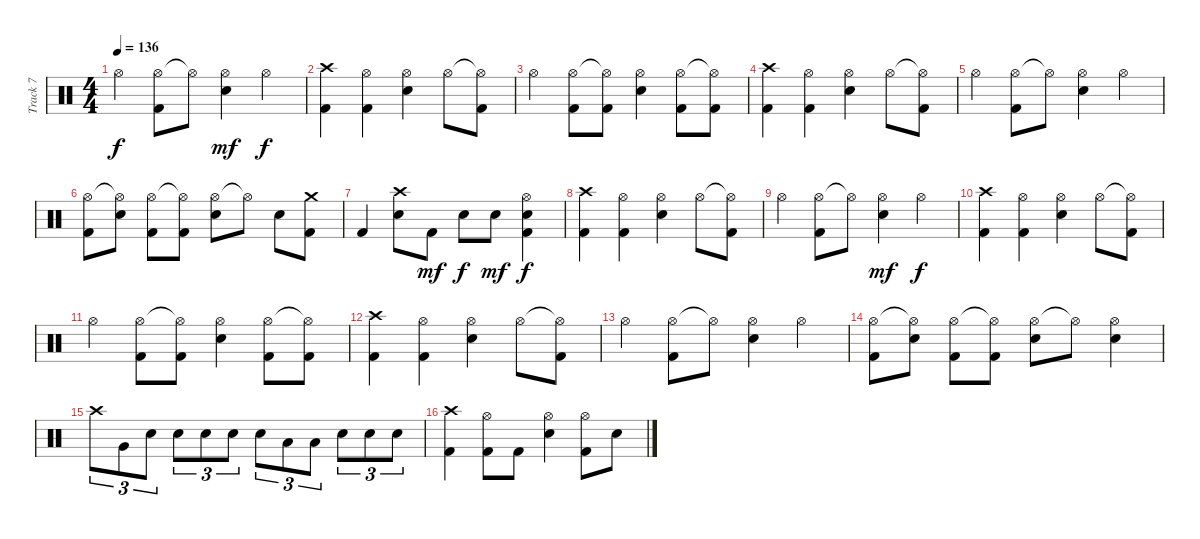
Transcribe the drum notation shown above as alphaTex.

\track ("Track 7" "Track 7") {instrument percussion}
\staff {score}
\articulation defaults
\ts (4 4)
\tempo 136
\clef neutral
\ks c "Hi-Hat (open)".4{dy f}
("Hi-Hat (open)" "Kick (hit) 2").8 "Hi-Hat (open)"{t}.8 ("Hi-Hat (open)" "Electric Snare (hit)").4{dy mf} "Hi-Hat (open)".4{dy f} |
("Crash high (hit)" "Kick (hit) 2").4 ("Hi-Hat (open)" "Kick (hit) 2").4 ("Hi-Hat (open)" "Electric Snare (hit)").4 "Hi-Hat (open)".8 ("Hi-Hat (open)"{t} "Kick (hit) 2").8 |
"Hi-Hat (open)".4 ("Hi-Hat (open)" "Kick (hit) 2").8 ("Hi-Hat (open)"{t} "Kick (hit) 2").8 ("Hi-Hat (open)" "Electric Snare (hit)").4 ("Hi-Hat (open)" "Kick (hit) 2").8 ("Hi-Hat (open)"{t} "Kick (hit) 2").8 |
("Crash high (hit)" "Kick (hit) 2").4 ("Hi-Hat (open)" "Kick (hit) 2").4 ("Hi-Hat (open)" "Electric Snare (hit)").4 "Hi-Hat (open)".8 ("Hi-Hat (open)"{t} "Kick (hit) 2").8 |
"Hi-Hat (open)".4 ("Hi-Hat (open)" "Kick (hit) 2").8 "Hi-Hat (open)"{t}.8 ("Hi-Hat (open)" "Electric Snare (hit)").4 "Hi-Hat (open)".4 |
("Hi-Hat (open)" "Kick (hit) 2").8 ("Hi-Hat (open)"{t} "Electric Snare (hit)").8 ("Hi-Hat (open)" "Kick (hit) 2").8 ("Hi-Hat (open)"{t} "Kick (hit) 2").8 ("Hi-Hat (open)" "Electric Snare (hit)").8 "Hi-Hat (open)"{t}.8 "Electric Snare (hit)".8 ("Crash medium (hit)" "Kick (hit) 2").8 |
"Kick (hit) 2".4 ("Crash high (hit)" "Electric Snare (hit)").8 "Kick (hit) 2".8{dy mf} "Electric Snare (hit)".8{dy f} "Electric Snare (hit)".8{dy mf} ("Hi-Hat (open)" "Electric Snare (hit)" "Kick (hit) 2").4{dy f} |
("Crash high (hit)" "Kick (hit) 2").4 ("Hi-Hat (open)" "Kick (hit) 2").4 ("Hi-Hat (open)" "Electric Snare (hit)").4 "Hi-Hat (open)".8 ("Hi-Hat (open)"{t} "Kick (hit) 2").8 |
"Hi-Hat (open)".4 ("Hi-Hat (open)" "Kick (hit) 2").8 "Hi-Hat (open)"{t}.8 ("Hi-Hat (open)" "Electric Snare (hit)").4{dy mf} "Hi-Hat (open)".4{dy f} |
("Crash high (hit)" "Kick (hit) 2").4 ("Hi-Hat (open)" "Kick (hit) 2").4 ("Hi-Hat (open)" "Electric Snare (hit)").4 "Hi-Hat (open)".8 ("Hi-Hat (open)"{t} "Kick (hit) 2").8 |
"Hi-Hat (open)".4 ("Hi-Hat (open)" "Kick (hit) 2").8 ("Hi-Hat (open)"{t} "Kick (hit) 2").8 ("Hi-Hat (open)" "Electric Snare (hit)").4 ("Hi-Hat (open)" "Kick (hit) 2").8 ("Hi-Hat (open)"{t} "Kick (hit) 2").8 |
("Crash high (hit)" "Kick (hit) 2").4 ("Hi-Hat (open)" "Kick (hit) 2").4 ("Hi-Hat (open)" "Electric Snare (hit)").4 "Hi-Hat (open)".8 ("Hi-Hat (open)"{t} "Kick (hit) 2").8 |
"Hi-Hat (open)".4 ("Hi-Hat (open)" "Kick (hit) 2").8 "Hi-Hat (open)"{t}.8 ("Hi-Hat (open)" "Electric Snare (hit)").4 "Hi-Hat (open)".4 |
("Hi-Hat (open)" "Kick (hit) 2").8 ("Hi-Hat (open)"{t} "Electric Snare (hit)").8 ("Hi-Hat (open)" "Kick (hit) 2").8 ("Hi-Hat (open)"{t} "Kick (hit) 2").8 ("Hi-Hat (open)" "Electric Snare (hit)").8 "Hi-Hat (open)"{t}.8 ("Hi-Hat (open)" "Electric Snare (hit)").4 |
"Crash high (hit)".8{tu (3 2)} "Very Low Tom (hit)".8{tu (3 2)} "Electric Snare (hit)".8{tu (3 2)} "Electric Snare (hit)".8{tu (3 2)} "Electric Snare (hit)".8{tu (3 2)} "Electric Snare (hit)".8{tu (3 2)} "Electric Snare (hit)".8{tu (3 2)} "Low Tom (hit)".8{tu (3 2)} "Low Tom (hit)".8{tu (3 2)} "Electric Snare (hit)".8{tu (3 2)} "Electric Snare (hit)".8{tu (3 2)} "Electric Snare (hit)".8{tu (3 2)} |
("Crash high (hit)" "Kick (hit) 2").4 ("Hi-Hat (open)" "Kick (hit) 2").8 "Kick (hit) 2".8 ("Hi-Hat (open)" "Electric Snare (hit)").4 ("Hi-Hat (open)" "Kick (hit) 2").8 "Electric Snare (hit)".8
